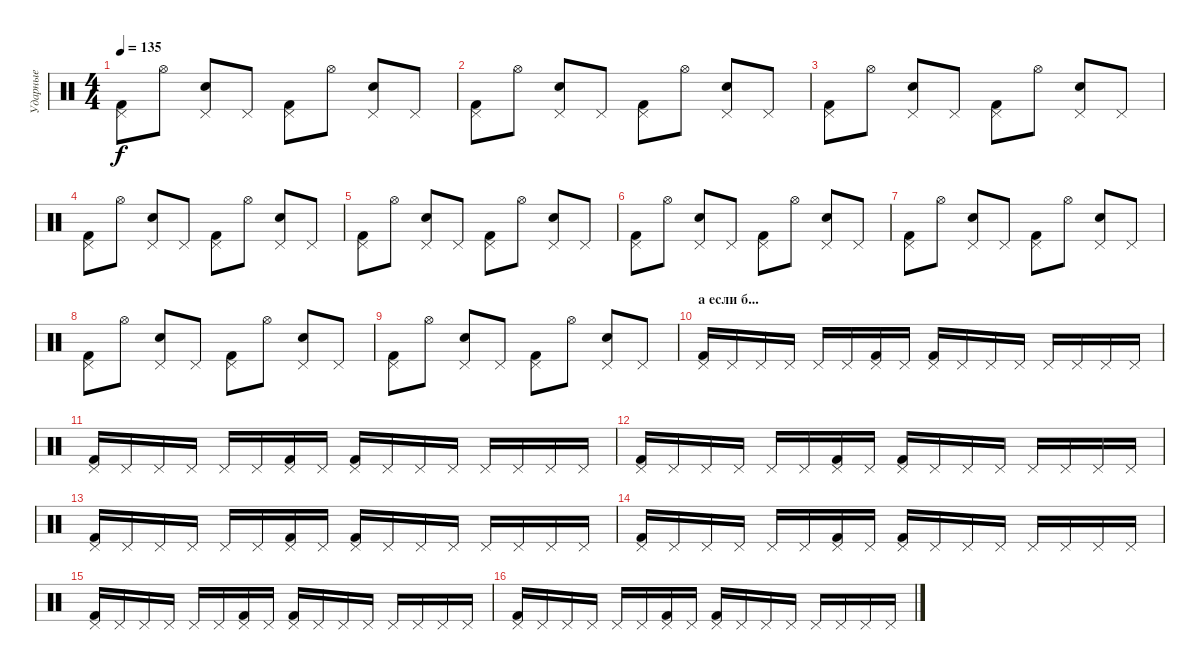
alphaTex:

\track ("Ударные" "Ударные") {instrument percussion}
\staff {score}
\articulation defaults
\ts (4 4)
\tempo 135
\clef neutral
\ks c
("Pedal Hi-Hat (hit)" "Kick (hit) 2").8{dy f} "Hi-Hat (open)".8 ("Pedal Hi-Hat (hit)" "Snare (hit) 2").8 "Pedal Hi-Hat (hit)".8 ("Pedal Hi-Hat (hit)" "Kick (hit) 2").8 "Hi-Hat (open)".8 ("Pedal Hi-Hat (hit)" "Snare (hit) 2").8 "Pedal Hi-Hat (hit)".8 |
("Pedal Hi-Hat (hit)" "Kick (hit) 2").8 "Hi-Hat (open)".8 ("Pedal Hi-Hat (hit)" "Snare (hit) 2").8 "Pedal Hi-Hat (hit)".8 ("Pedal Hi-Hat (hit)" "Kick (hit) 2").8 "Hi-Hat (open)".8 ("Pedal Hi-Hat (hit)" "Snare (hit) 2").8 "Pedal Hi-Hat (hit)".8 |
("Pedal Hi-Hat (hit)" "Kick (hit) 2").8 "Hi-Hat (open)".8 ("Pedal Hi-Hat (hit)" "Snare (hit) 2").8 "Pedal Hi-Hat (hit)".8 ("Pedal Hi-Hat (hit)" "Kick (hit) 2").8 "Hi-Hat (open)".8 ("Pedal Hi-Hat (hit)" "Snare (hit) 2").8 "Pedal Hi-Hat (hit)".8 |
("Pedal Hi-Hat (hit)" "Kick (hit) 2").8 "Hi-Hat (open)".8 ("Pedal Hi-Hat (hit)" "Snare (hit) 2").8 "Pedal Hi-Hat (hit)".8 ("Pedal Hi-Hat (hit)" "Kick (hit) 2").8 "Hi-Hat (open)".8 ("Pedal Hi-Hat (hit)" "Snare (hit) 2").8 "Pedal Hi-Hat (hit)".8 |
("Pedal Hi-Hat (hit)" "Kick (hit) 2").8 "Hi-Hat (open)".8 ("Pedal Hi-Hat (hit)" "Snare (hit) 2").8 "Pedal Hi-Hat (hit)".8 ("Pedal Hi-Hat (hit)" "Kick (hit) 2").8 "Hi-Hat (open)".8 ("Pedal Hi-Hat (hit)" "Snare (hit) 2").8 "Pedal Hi-Hat (hit)".8 |
("Pedal Hi-Hat (hit)" "Kick (hit) 2").8 "Hi-Hat (open)".8 ("Pedal Hi-Hat (hit)" "Snare (hit) 2").8 "Pedal Hi-Hat (hit)".8 ("Pedal Hi-Hat (hit)" "Kick (hit) 2").8 "Hi-Hat (open)".8 ("Pedal Hi-Hat (hit)" "Snare (hit) 2").8 "Pedal Hi-Hat (hit)".8 |
("Pedal Hi-Hat (hit)" "Kick (hit) 2").8 "Hi-Hat (open)".8 ("Pedal Hi-Hat (hit)" "Snare (hit) 2").8 "Pedal Hi-Hat (hit)".8 ("Pedal Hi-Hat (hit)" "Kick (hit) 2").8 "Hi-Hat (open)".8 ("Pedal Hi-Hat (hit)" "Snare (hit) 2").8 "Pedal Hi-Hat (hit)".8 |
("Pedal Hi-Hat (hit)" "Kick (hit) 2").8 "Hi-Hat (open)".8 ("Pedal Hi-Hat (hit)" "Snare (hit) 2").8 "Pedal Hi-Hat (hit)".8 ("Pedal Hi-Hat (hit)" "Kick (hit) 2").8 "Hi-Hat (open)".8 ("Pedal Hi-Hat (hit)" "Snare (hit) 2").8 "Pedal Hi-Hat (hit)".8 |
("Pedal Hi-Hat (hit)" "Kick (hit) 2").8 "Hi-Hat (open)".8 ("Pedal Hi-Hat (hit)" "Snare (hit) 2").8 "Pedal Hi-Hat (hit)".8 ("Pedal Hi-Hat (hit)" "Kick (hit) 2").8 "Hi-Hat (open)".8 ("Pedal Hi-Hat (hit)" "Snare (hit) 2").8 "Pedal Hi-Hat (hit)".8 |
\section ("" "а если б...")
("Pedal Hi-Hat (hit)" "Kick (hit) 2").16 "Pedal Hi-Hat (hit)".16 "Pedal Hi-Hat (hit)".16 "Pedal Hi-Hat (hit)".16 "Pedal Hi-Hat (hit)".16 "Pedal Hi-Hat (hit)".16 ("Pedal Hi-Hat (hit)" "Kick (hit) 2").16 "Pedal Hi-Hat (hit)".16 ("Pedal Hi-Hat (hit)" "Kick (hit) 2").16 "Pedal Hi-Hat (hit)".16 "Pedal Hi-Hat (hit)".16 "Pedal Hi-Hat (hit)".16 "Pedal Hi-Hat (hit)".16 "Pedal Hi-Hat (hit)".16 "Pedal Hi-Hat (hit)".16 "Pedal Hi-Hat (hit)".16 |
("Pedal Hi-Hat (hit)" "Kick (hit) 2").16 "Pedal Hi-Hat (hit)".16 "Pedal Hi-Hat (hit)".16 "Pedal Hi-Hat (hit)".16 "Pedal Hi-Hat (hit)".16 "Pedal Hi-Hat (hit)".16 ("Pedal Hi-Hat (hit)" "Kick (hit) 2").16 "Pedal Hi-Hat (hit)".16 ("Pedal Hi-Hat (hit)" "Kick (hit) 2").16 "Pedal Hi-Hat (hit)".16 "Pedal Hi-Hat (hit)".16 "Pedal Hi-Hat (hit)".16 "Pedal Hi-Hat (hit)".16 "Pedal Hi-Hat (hit)".16 "Pedal Hi-Hat (hit)".16 "Pedal Hi-Hat (hit)".16 |
("Pedal Hi-Hat (hit)" "Kick (hit) 2").16 "Pedal Hi-Hat (hit)".16 "Pedal Hi-Hat (hit)".16 "Pedal Hi-Hat (hit)".16 "Pedal Hi-Hat (hit)".16 "Pedal Hi-Hat (hit)".16 ("Pedal Hi-Hat (hit)" "Kick (hit) 2").16 "Pedal Hi-Hat (hit)".16 ("Pedal Hi-Hat (hit)" "Kick (hit) 2").16 "Pedal Hi-Hat (hit)".16 "Pedal Hi-Hat (hit)".16 "Pedal Hi-Hat (hit)".16 "Pedal Hi-Hat (hit)".16 "Pedal Hi-Hat (hit)".16 "Pedal Hi-Hat (hit)".16 "Pedal Hi-Hat (hit)".16 |
("Pedal Hi-Hat (hit)" "Kick (hit) 2").16 "Pedal Hi-Hat (hit)".16 "Pedal Hi-Hat (hit)".16 "Pedal Hi-Hat (hit)".16 "Pedal Hi-Hat (hit)".16 "Pedal Hi-Hat (hit)".16 ("Pedal Hi-Hat (hit)" "Kick (hit) 2").16 "Pedal Hi-Hat (hit)".16 ("Pedal Hi-Hat (hit)" "Kick (hit) 2").16 "Pedal Hi-Hat (hit)".16 "Pedal Hi-Hat (hit)".16 "Pedal Hi-Hat (hit)".16 "Pedal Hi-Hat (hit)".16 "Pedal Hi-Hat (hit)".16 "Pedal Hi-Hat (hit)".16 "Pedal Hi-Hat (hit)".16 |
("Pedal Hi-Hat (hit)" "Kick (hit) 2").16 "Pedal Hi-Hat (hit)".16 "Pedal Hi-Hat (hit)".16 "Pedal Hi-Hat (hit)".16 "Pedal Hi-Hat (hit)".16 "Pedal Hi-Hat (hit)".16 ("Pedal Hi-Hat (hit)" "Kick (hit) 2").16 "Pedal Hi-Hat (hit)".16 ("Pedal Hi-Hat (hit)" "Kick (hit) 2").16 "Pedal Hi-Hat (hit)".16 "Pedal Hi-Hat (hit)".16 "Pedal Hi-Hat (hit)".16 "Pedal Hi-Hat (hit)".16 "Pedal Hi-Hat (hit)".16 "Pedal Hi-Hat (hit)".16 "Pedal Hi-Hat (hit)".16 |
("Pedal Hi-Hat (hit)" "Kick (hit) 2").16 "Pedal Hi-Hat (hit)".16 "Pedal Hi-Hat (hit)".16 "Pedal Hi-Hat (hit)".16 "Pedal Hi-Hat (hit)".16 "Pedal Hi-Hat (hit)".16 ("Pedal Hi-Hat (hit)" "Kick (hit) 2").16 "Pedal Hi-Hat (hit)".16 ("Pedal Hi-Hat (hit)" "Kick (hit) 2").16 "Pedal Hi-Hat (hit)".16 "Pedal Hi-Hat (hit)".16 "Pedal Hi-Hat (hit)".16 "Pedal Hi-Hat (hit)".16 "Pedal Hi-Hat (hit)".16 "Pedal Hi-Hat (hit)".16 "Pedal Hi-Hat (hit)".16 |
("Pedal Hi-Hat (hit)" "Kick (hit) 2").16 "Pedal Hi-Hat (hit)".16 "Pedal Hi-Hat (hit)".16 "Pedal Hi-Hat (hit)".16 "Pedal Hi-Hat (hit)".16 "Pedal Hi-Hat (hit)".16 ("Pedal Hi-Hat (hit)" "Kick (hit) 2").16 "Pedal Hi-Hat (hit)".16 ("Pedal Hi-Hat (hit)" "Kick (hit) 2").16 "Pedal Hi-Hat (hit)".16 "Pedal Hi-Hat (hit)".16 "Pedal Hi-Hat (hit)".16 "Pedal Hi-Hat (hit)".16 "Pedal Hi-Hat (hit)".16 "Pedal Hi-Hat (hit)".16 "Pedal Hi-Hat (hit)".16
